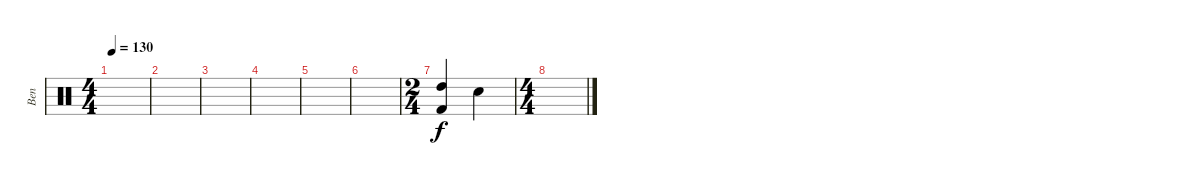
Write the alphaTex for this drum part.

\track ("Ben" "Ben") {instrument percussion}
\staff {score}
\articulation defaults
\ts (4 4)
\tempo 130
\clef neutral
\ks c
|
|
|
|
|
|
\ts (2 4)
("Kick (hit) 2" "High Tom (hit)").4 "Snare (hit) 2".4 |
\ts (4 4)
